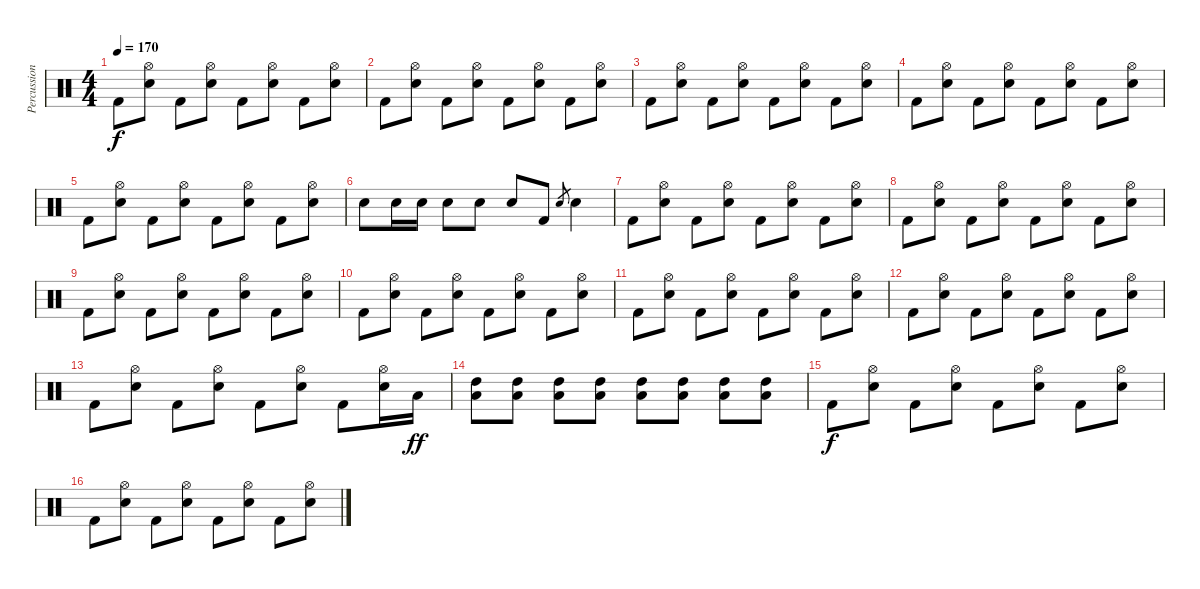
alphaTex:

\track ("Percussion" "Percussion") {instrument percussion}
\staff {score}
\articulation defaults
\ts (4 4)
\tempo 170
\clef neutral
\ks c "Kick (hit) 2".8{dy f}
("Hi-Hat (open)" "Electric Snare (hit)").8 "Kick (hit) 2".8 ("Hi-Hat (open)" "Electric Snare (hit)").8 "Kick (hit) 2".8 ("Hi-Hat (open)" "Electric Snare (hit)").8 "Kick (hit) 2".8 ("Hi-Hat (open)" "Electric Snare (hit)").8 |
"Kick (hit) 2".8 ("Hi-Hat (open)" "Electric Snare (hit)").8 "Kick (hit) 2".8 ("Hi-Hat (open)" "Electric Snare (hit)").8 "Kick (hit) 2".8 ("Hi-Hat (open)" "Electric Snare (hit)").8 "Kick (hit) 2".8 ("Hi-Hat (open)" "Electric Snare (hit)").8 |
"Kick (hit) 2".8 ("Hi-Hat (open)" "Electric Snare (hit)").8 "Kick (hit) 2".8 ("Hi-Hat (open)" "Electric Snare (hit)").8 "Kick (hit) 2".8 ("Hi-Hat (open)" "Electric Snare (hit)").8 "Kick (hit) 2".8 ("Hi-Hat (open)" "Electric Snare (hit)").8 |
"Kick (hit) 2".8 ("Hi-Hat (open)" "Electric Snare (hit)").8 "Kick (hit) 2".8 ("Hi-Hat (open)" "Electric Snare (hit)").8 "Kick (hit) 2".8 ("Hi-Hat (open)" "Electric Snare (hit)").8 "Kick (hit) 2".8 ("Hi-Hat (open)" "Electric Snare (hit)").8 |
"Kick (hit) 2".8 ("Hi-Hat (open)" "Electric Snare (hit)").8 "Kick (hit) 2".8 ("Hi-Hat (open)" "Electric Snare (hit)").8 "Kick (hit) 2".8 ("Hi-Hat (open)" "Electric Snare (hit)").8 "Kick (hit) 2".8 ("Hi-Hat (open)" "Electric Snare (hit)").8 |
"Electric Snare (hit)".8 "Electric Snare (hit)".16 "Electric Snare (hit)".16 "Electric Snare (hit)".8 "Electric Snare (hit)".8 "Electric Snare (hit)".8 "Kick (hit) 2".8 "Electric Snare (hit)".8{gr} "Electric Snare (hit)".4 |
"Kick (hit) 2".8 ("Hi-Hat (open)" "Electric Snare (hit)").8 "Kick (hit) 2".8 ("Hi-Hat (open)" "Electric Snare (hit)").8 "Kick (hit) 2".8 ("Hi-Hat (open)" "Electric Snare (hit)").8 "Kick (hit) 2".8 ("Hi-Hat (open)" "Electric Snare (hit)").8 |
"Kick (hit) 2".8 ("Hi-Hat (open)" "Electric Snare (hit)").8 "Kick (hit) 2".8 ("Hi-Hat (open)" "Electric Snare (hit)").8 "Kick (hit) 2".8 ("Hi-Hat (open)" "Electric Snare (hit)").8 "Kick (hit) 2".8 ("Hi-Hat (open)" "Electric Snare (hit)").8 |
"Kick (hit) 2".8 ("Hi-Hat (open)" "Electric Snare (hit)").8 "Kick (hit) 2".8 ("Hi-Hat (open)" "Electric Snare (hit)").8 "Kick (hit) 2".8 ("Hi-Hat (open)" "Electric Snare (hit)").8 "Kick (hit) 2".8 ("Hi-Hat (open)" "Electric Snare (hit)").8 |
"Kick (hit) 2".8 ("Hi-Hat (open)" "Electric Snare (hit)").8 "Kick (hit) 2".8 ("Hi-Hat (open)" "Electric Snare (hit)").8 "Kick (hit) 2".8 ("Hi-Hat (open)" "Electric Snare (hit)").8 "Kick (hit) 2".8 ("Hi-Hat (open)" "Electric Snare (hit)").8 |
"Kick (hit) 2".8 ("Hi-Hat (open)" "Electric Snare (hit)").8 "Kick (hit) 2".8 ("Hi-Hat (open)" "Electric Snare (hit)").8 "Kick (hit) 2".8 ("Hi-Hat (open)" "Electric Snare (hit)").8 "Kick (hit) 2".8 ("Hi-Hat (open)" "Electric Snare (hit)").8 |
"Kick (hit) 2".8 ("Hi-Hat (open)" "Electric Snare (hit)").8 "Kick (hit) 2".8 ("Hi-Hat (open)" "Electric Snare (hit)").8 "Kick (hit) 2".8 ("Hi-Hat (open)" "Electric Snare (hit)").8 "Kick (hit) 2".8 ("Hi-Hat (open)" "Electric Snare (hit)").8 |
"Kick (hit) 2".8 ("Hi-Hat (open)" "Electric Snare (hit)").8 "Kick (hit) 2".8 ("Hi-Hat (open)" "Electric Snare (hit)").8 "Kick (hit) 2".8 ("Hi-Hat (open)" "Electric Snare (hit)").8 "Kick (hit) 2".8 ("Hi-Hat (open)" "Electric Snare (hit)").16 "Low Tom (hit)".16{dy ff} |
("Low Tom (hit)" "High Tom (hit)").8 ("Low Tom (hit)" "High Tom (hit)").8 ("Low Tom (hit)" "High Tom (hit)").8 ("Low Tom (hit)" "High Tom (hit)").8 ("Low Tom (hit)" "High Tom (hit)").8 ("Low Tom (hit)" "High Tom (hit)").8 ("Low Tom (hit)" "High Tom (hit)").8 ("Low Tom (hit)" "High Tom (hit)").8 |
"Kick (hit) 2".8{dy f} ("Hi-Hat (open)" "Electric Snare (hit)").8 "Kick (hit) 2".8 ("Hi-Hat (open)" "Electric Snare (hit)").8 "Kick (hit) 2".8 ("Hi-Hat (open)" "Electric Snare (hit)").8 "Kick (hit) 2".8 ("Hi-Hat (open)" "Electric Snare (hit)").8 |
"Kick (hit) 2".8 ("Hi-Hat (open)" "Electric Snare (hit)").8 "Kick (hit) 2".8 ("Hi-Hat (open)" "Electric Snare (hit)").8 "Kick (hit) 2".8 ("Hi-Hat (open)" "Electric Snare (hit)").8 "Kick (hit) 2".8 ("Hi-Hat (open)" "Electric Snare (hit)").8
